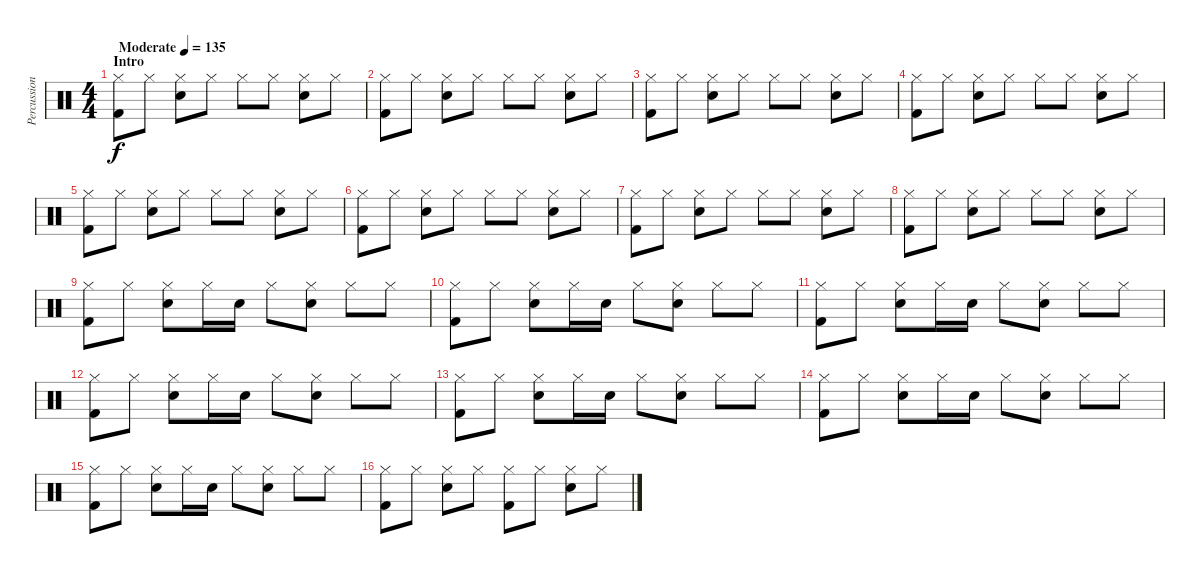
\track ("Percussion" "Percussion") {instrument percussion}
\staff {score}
\articulation defaults
\ts (4 4)
\section ("" "Intro")
\tempo (135 "Moderate")
\clef neutral
\ks c
("Hi-Hat (closed)" "Kick (hit) 2").8{dy f} "Hi-Hat (closed)".8 ("Hi-Hat (closed)" "Snare (hit) 2").8 "Hi-Hat (closed)".8 "Hi-Hat (closed)".8 "Hi-Hat (closed)".8 ("Hi-Hat (closed)" "Snare (hit) 2").8 "Hi-Hat (closed)".8 |
("Hi-Hat (closed)" "Kick (hit) 2").8 "Hi-Hat (closed)".8 ("Hi-Hat (closed)" "Snare (hit) 2").8 "Hi-Hat (closed)".8 "Hi-Hat (closed)".8 "Hi-Hat (closed)".8 ("Hi-Hat (closed)" "Snare (hit) 2").8 "Hi-Hat (closed)".8 |
("Hi-Hat (closed)" "Kick (hit) 2").8 "Hi-Hat (closed)".8 ("Hi-Hat (closed)" "Snare (hit) 2").8 "Hi-Hat (closed)".8 "Hi-Hat (closed)".8 "Hi-Hat (closed)".8 ("Hi-Hat (closed)" "Snare (hit) 2").8 "Hi-Hat (closed)".8 |
("Hi-Hat (closed)" "Kick (hit) 2").8 "Hi-Hat (closed)".8 ("Hi-Hat (closed)" "Snare (hit) 2").8 "Hi-Hat (closed)".8 "Hi-Hat (closed)".8 "Hi-Hat (closed)".8 ("Hi-Hat (closed)" "Snare (hit) 2").8 "Hi-Hat (closed)".8 |
("Hi-Hat (closed)" "Kick (hit) 2").8 "Hi-Hat (closed)".8 ("Hi-Hat (closed)" "Snare (hit) 2").8 "Hi-Hat (closed)".8 "Hi-Hat (closed)".8 "Hi-Hat (closed)".8 ("Hi-Hat (closed)" "Snare (hit) 2").8 "Hi-Hat (closed)".8 |
("Hi-Hat (closed)" "Kick (hit) 2").8 "Hi-Hat (closed)".8 ("Hi-Hat (closed)" "Snare (hit) 2").8 "Hi-Hat (closed)".8 "Hi-Hat (closed)".8 "Hi-Hat (closed)".8 ("Hi-Hat (closed)" "Snare (hit) 2").8 "Hi-Hat (closed)".8 |
("Hi-Hat (closed)" "Kick (hit) 2").8 "Hi-Hat (closed)".8 ("Hi-Hat (closed)" "Snare (hit) 2").8 "Hi-Hat (closed)".8 "Hi-Hat (closed)".8 "Hi-Hat (closed)".8 ("Hi-Hat (closed)" "Snare (hit) 2").8 "Hi-Hat (closed)".8 |
("Hi-Hat (closed)" "Kick (hit) 2").8 "Hi-Hat (closed)".8 ("Hi-Hat (closed)" "Snare (hit) 2").8 "Hi-Hat (closed)".8 "Hi-Hat (closed)".8 "Hi-Hat (closed)".8 ("Hi-Hat (closed)" "Snare (hit) 2").8 "Hi-Hat (closed)".8 |
("Hi-Hat (closed)" "Kick (hit) 2").8 "Hi-Hat (closed)".8 ("Hi-Hat (closed)" "Snare (hit) 2").8 "Hi-Hat (closed)".16 "Snare (hit) 2".16 "Hi-Hat (closed)".8 ("Hi-Hat (closed)" "Snare (hit) 2").8 "Hi-Hat (closed)".8 "Hi-Hat (closed)".8 |
("Hi-Hat (closed)" "Kick (hit) 2").8 "Hi-Hat (closed)".8 ("Hi-Hat (closed)" "Snare (hit) 2").8 "Hi-Hat (closed)".16 "Snare (hit) 2".16 "Hi-Hat (closed)".8 ("Hi-Hat (closed)" "Snare (hit) 2").8 "Hi-Hat (closed)".8 "Hi-Hat (closed)".8 |
("Hi-Hat (closed)" "Kick (hit) 2").8 "Hi-Hat (closed)".8 ("Hi-Hat (closed)" "Snare (hit) 2").8 "Hi-Hat (closed)".16 "Snare (hit) 2".16 "Hi-Hat (closed)".8 ("Hi-Hat (closed)" "Snare (hit) 2").8 "Hi-Hat (closed)".8 "Hi-Hat (closed)".8 |
("Hi-Hat (closed)" "Kick (hit) 2").8 "Hi-Hat (closed)".8 ("Hi-Hat (closed)" "Snare (hit) 2").8 "Hi-Hat (closed)".16 "Snare (hit) 2".16 "Hi-Hat (closed)".8 ("Hi-Hat (closed)" "Snare (hit) 2").8 "Hi-Hat (closed)".8 "Hi-Hat (closed)".8 |
("Hi-Hat (closed)" "Kick (hit) 2").8 "Hi-Hat (closed)".8 ("Hi-Hat (closed)" "Snare (hit) 2").8 "Hi-Hat (closed)".16 "Snare (hit) 2".16 "Hi-Hat (closed)".8 ("Hi-Hat (closed)" "Snare (hit) 2").8 "Hi-Hat (closed)".8 "Hi-Hat (closed)".8 |
("Hi-Hat (closed)" "Kick (hit) 2").8 "Hi-Hat (closed)".8 ("Hi-Hat (closed)" "Snare (hit) 2").8 "Hi-Hat (closed)".16 "Snare (hit) 2".16 "Hi-Hat (closed)".8 ("Hi-Hat (closed)" "Snare (hit) 2").8 "Hi-Hat (closed)".8 "Hi-Hat (closed)".8 |
("Hi-Hat (closed)" "Kick (hit) 2").8 "Hi-Hat (closed)".8 ("Hi-Hat (closed)" "Snare (hit) 2").8 "Hi-Hat (closed)".16 "Snare (hit) 2".16 "Hi-Hat (closed)".8 ("Hi-Hat (closed)" "Snare (hit) 2").8 "Hi-Hat (closed)".8 "Hi-Hat (closed)".8 |
("Hi-Hat (closed)" "Kick (hit) 2").8 "Hi-Hat (closed)".8 ("Hi-Hat (closed)" "Snare (hit) 2").8 "Hi-Hat (closed)".8 ("Hi-Hat (closed)" "Kick (hit) 2").8 "Hi-Hat (closed)".8 ("Hi-Hat (closed)" "Snare (hit) 2").8 "Hi-Hat (closed)".8
